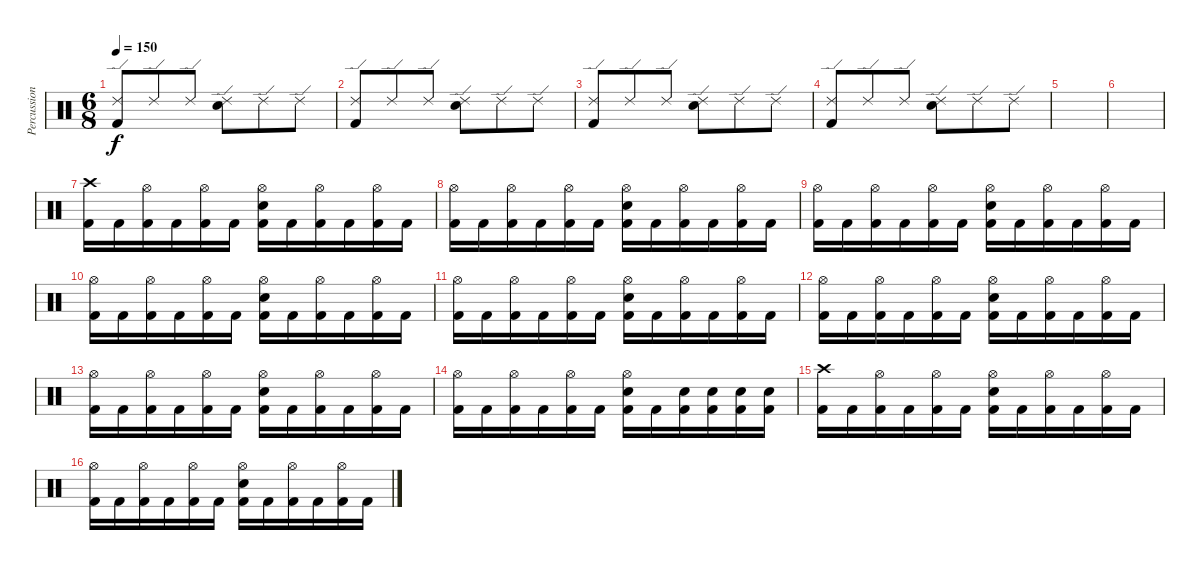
\track ("Percussion" "Percussion") {instrument percussion}
\staff {score}
\articulation defaults
\ts (6 8)
\tempo 150
\clef neutral
\ks c
("Ride (edge) 2" "Kick (hit) 2").8{dy f} "Ride (edge) 2".8 "Ride (edge) 2".8 ("Ride (edge) 2" "Electric Snare (hit)").8 "Ride (edge) 2".8 "Ride (edge) 2".8 |
("Ride (edge) 2" "Kick (hit) 2").8 "Ride (edge) 2".8 "Ride (edge) 2".8 ("Ride (edge) 2" "Electric Snare (hit)").8 "Ride (edge) 2".8 "Ride (edge) 2".8 |
("Ride (edge) 2" "Kick (hit) 2").8 "Ride (edge) 2".8 "Ride (edge) 2".8 ("Ride (edge) 2" "Electric Snare (hit)").8 "Ride (edge) 2".8 "Ride (edge) 2".8 |
("Ride (edge) 2" "Kick (hit) 2").8 "Ride (edge) 2".8 "Ride (edge) 2".8 ("Ride (edge) 2" "Electric Snare (hit)").8 "Ride (edge) 2".8 "Ride (edge) 2".8 |
|
|
("Crash high (hit)" "Kick (hit) 2").16 "Kick (hit) 2".16 ("Hi-Hat (open)" "Kick (hit) 2").16 "Kick (hit) 2".16 ("Hi-Hat (open)" "Kick (hit) 2").16 "Kick (hit) 2".16 ("Hi-Hat (open)" "Electric Snare (hit)" "Kick (hit) 2").16 "Kick (hit) 2".16 ("Hi-Hat (open)" "Kick (hit) 2").16 "Kick (hit) 2".16 ("Hi-Hat (open)" "Kick (hit) 2").16 "Kick (hit) 2".16 |
("Hi-Hat (open)" "Kick (hit) 2").16 "Kick (hit) 2".16 ("Hi-Hat (open)" "Kick (hit) 2").16 "Kick (hit) 2".16 ("Hi-Hat (open)" "Kick (hit) 2").16 "Kick (hit) 2".16 ("Hi-Hat (open)" "Electric Snare (hit)" "Kick (hit) 2").16 "Kick (hit) 2".16 ("Hi-Hat (open)" "Kick (hit) 2").16 "Kick (hit) 2".16 ("Hi-Hat (open)" "Kick (hit) 2").16 "Kick (hit) 2".16 |
("Hi-Hat (open)" "Kick (hit) 2").16 "Kick (hit) 2".16 ("Hi-Hat (open)" "Kick (hit) 2").16 "Kick (hit) 2".16 ("Hi-Hat (open)" "Kick (hit) 2").16 "Kick (hit) 2".16 ("Hi-Hat (open)" "Electric Snare (hit)" "Kick (hit) 2").16 "Kick (hit) 2".16 ("Hi-Hat (open)" "Kick (hit) 2").16 "Kick (hit) 2".16 ("Hi-Hat (open)" "Kick (hit) 2").16 "Kick (hit) 2".16 |
("Hi-Hat (open)" "Kick (hit) 2").16 "Kick (hit) 2".16 ("Hi-Hat (open)" "Kick (hit) 2").16 "Kick (hit) 2".16 ("Hi-Hat (open)" "Kick (hit) 2").16 "Kick (hit) 2".16 ("Hi-Hat (open)" "Electric Snare (hit)" "Kick (hit) 2").16 "Kick (hit) 2".16 ("Hi-Hat (open)" "Kick (hit) 2").16 "Kick (hit) 2".16 ("Hi-Hat (open)" "Kick (hit) 2").16 "Kick (hit) 2".16 |
("Hi-Hat (open)" "Kick (hit) 2").16 "Kick (hit) 2".16 ("Hi-Hat (open)" "Kick (hit) 2").16 "Kick (hit) 2".16 ("Hi-Hat (open)" "Kick (hit) 2").16 "Kick (hit) 2".16 ("Hi-Hat (open)" "Electric Snare (hit)" "Kick (hit) 2").16 "Kick (hit) 2".16 ("Hi-Hat (open)" "Kick (hit) 2").16 "Kick (hit) 2".16 ("Hi-Hat (open)" "Kick (hit) 2").16 "Kick (hit) 2".16 |
("Hi-Hat (open)" "Kick (hit) 2").16 "Kick (hit) 2".16 ("Hi-Hat (open)" "Kick (hit) 2").16 "Kick (hit) 2".16 ("Hi-Hat (open)" "Kick (hit) 2").16 "Kick (hit) 2".16 ("Hi-Hat (open)" "Electric Snare (hit)" "Kick (hit) 2").16 "Kick (hit) 2".16 ("Hi-Hat (open)" "Kick (hit) 2").16 "Kick (hit) 2".16 ("Hi-Hat (open)" "Kick (hit) 2").16 "Kick (hit) 2".16 |
("Hi-Hat (open)" "Kick (hit) 2").16 "Kick (hit) 2".16 ("Hi-Hat (open)" "Kick (hit) 2").16 "Kick (hit) 2".16 ("Hi-Hat (open)" "Kick (hit) 2").16 "Kick (hit) 2".16 ("Hi-Hat (open)" "Electric Snare (hit)" "Kick (hit) 2").16 "Kick (hit) 2".16 ("Hi-Hat (open)" "Kick (hit) 2").16 "Kick (hit) 2".16 ("Hi-Hat (open)" "Kick (hit) 2").16 "Kick (hit) 2".16 |
("Hi-Hat (open)" "Kick (hit) 2").16 "Kick (hit) 2".16 ("Hi-Hat (open)" "Kick (hit) 2").16 "Kick (hit) 2".16 ("Hi-Hat (open)" "Kick (hit) 2").16 "Kick (hit) 2".16 ("Hi-Hat (open)" "Electric Snare (hit)" "Kick (hit) 2").16 "Kick (hit) 2".16 ("Electric Snare (hit)" "Kick (hit) 2").16 ("Electric Snare (hit)" "Kick (hit) 2").16 ("Electric Snare (hit)" "Kick (hit) 2").16 ("Electric Snare (hit)" "Kick (hit) 2").16 |
("Crash high (hit)" "Kick (hit) 2").16 "Kick (hit) 2".16 ("Hi-Hat (open)" "Kick (hit) 2").16 "Kick (hit) 2".16 ("Hi-Hat (open)" "Kick (hit) 2").16 "Kick (hit) 2".16 ("Hi-Hat (open)" "Electric Snare (hit)" "Kick (hit) 2").16 "Kick (hit) 2".16 ("Hi-Hat (open)" "Kick (hit) 2").16 "Kick (hit) 2".16 ("Hi-Hat (open)" "Kick (hit) 2").16 "Kick (hit) 2".16 |
("Hi-Hat (open)" "Kick (hit) 2").16 "Kick (hit) 2".16 ("Hi-Hat (open)" "Kick (hit) 2").16 "Kick (hit) 2".16 ("Hi-Hat (open)" "Kick (hit) 2").16 "Kick (hit) 2".16 ("Hi-Hat (open)" "Electric Snare (hit)" "Kick (hit) 2").16 "Kick (hit) 2".16 ("Hi-Hat (open)" "Kick (hit) 2").16 "Kick (hit) 2".16 ("Hi-Hat (open)" "Kick (hit) 2").16 "Kick (hit) 2".16
